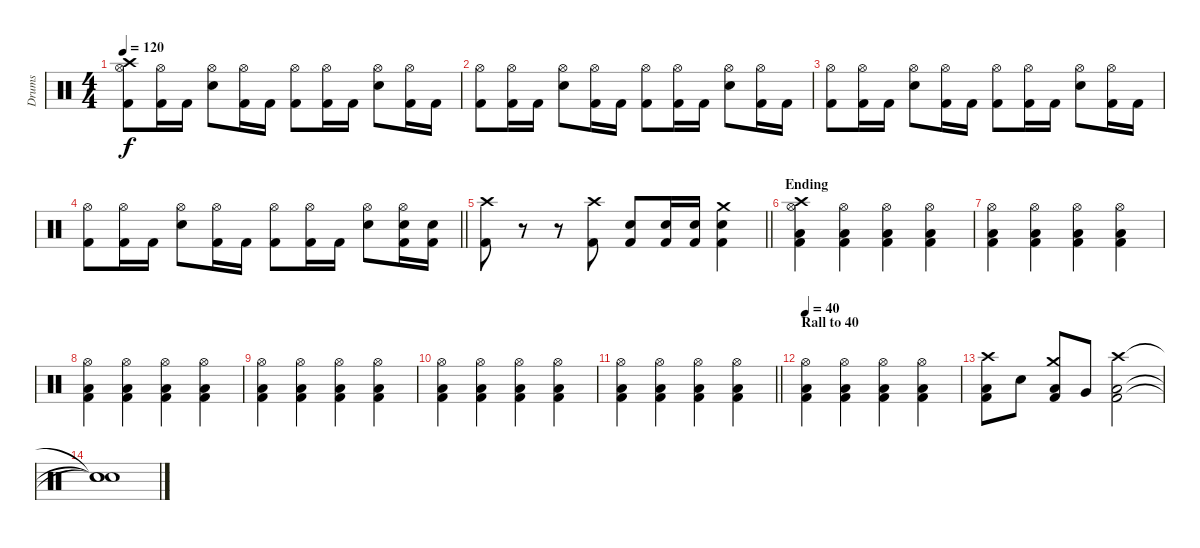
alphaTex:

\track ("Drums" "Drums") {instrument percussion}
\staff {score}
\articulation defaults
\ts (4 4)
\tempo 120
\clef neutral
\ks c
("Crash high (hit)" "Hi-Hat (open)" "Kick (hit) 2").8{dy f} ("Hi-Hat (open)" "Kick (hit) 2").16 "Kick (hit) 2".16 ("Hi-Hat (open)" "Snare (hit) 2").8 ("Hi-Hat (open)" "Kick (hit) 2").16 "Kick (hit) 2".16 ("Hi-Hat (open)" "Kick (hit) 2").8 ("Hi-Hat (open)" "Kick (hit) 2").16 "Kick (hit) 2".16 ("Hi-Hat (open)" "Snare (hit) 2").8 ("Hi-Hat (open)" "Kick (hit) 2").16 "Kick (hit) 2".16 |
("Hi-Hat (open)" "Kick (hit) 2").8 ("Hi-Hat (open)" "Kick (hit) 2").16 "Kick (hit) 2".16 ("Hi-Hat (open)" "Snare (hit) 2").8 ("Hi-Hat (open)" "Kick (hit) 2").16 "Kick (hit) 2".16 ("Hi-Hat (open)" "Kick (hit) 2").8 ("Hi-Hat (open)" "Kick (hit) 2").16 "Kick (hit) 2".16 ("Hi-Hat (open)" "Snare (hit) 2").8 ("Hi-Hat (open)" "Kick (hit) 2").16 "Kick (hit) 2".16 |
("Hi-Hat (open)" "Kick (hit) 2").8 ("Hi-Hat (open)" "Kick (hit) 2").16 "Kick (hit) 2".16 ("Hi-Hat (open)" "Snare (hit) 2").8 ("Hi-Hat (open)" "Kick (hit) 2").16 "Kick (hit) 2".16 ("Hi-Hat (open)" "Kick (hit) 2").8 ("Hi-Hat (open)" "Kick (hit) 2").16 "Kick (hit) 2".16 ("Hi-Hat (open)" "Snare (hit) 2").8 ("Hi-Hat (open)" "Kick (hit) 2").16 "Kick (hit) 2".16 |
\barLineRight lightlight
("Hi-Hat (open)" "Kick (hit) 2").8 ("Hi-Hat (open)" "Kick (hit) 2").16 "Kick (hit) 2".16 ("Hi-Hat (open)" "Snare (hit) 2").8 ("Hi-Hat (open)" "Kick (hit) 2").16 "Kick (hit) 2".16 ("Hi-Hat (open)" "Kick (hit) 2").8 ("Hi-Hat (open)" "Kick (hit) 2").16 "Kick (hit) 2".16 ("Hi-Hat (open)" "Snare (hit) 2").8 ("Hi-Hat (open)" "Snare (hit) 2" "Kick (hit) 2").16 ("Snare (hit) 2" "Kick (hit) 2").16 |
\barLineRight lightlight
("Crash high (hit)" "Kick (hit) 2").8 r.8 r.8 ("Crash high (hit)" "Kick (hit) 2").8 ("Snare (hit) 2" "Kick (hit) 2").8 ("Snare (hit) 2" "Kick (hit) 2").16 ("Snare (hit) 2" "Kick (hit) 2").16 ("Crash medium (hit)" "Snare (hit) 2" "Kick (hit) 2").4 |
\section ("" "Ending")
("Crash high (hit)" "Hi-Hat (open)" "Low Floor Tom (hit)" "Kick (hit) 2").4 ("Hi-Hat (open)" "Low Floor Tom (hit)" "Kick (hit) 2").4 ("Hi-Hat (open)" "Low Floor Tom (hit)" "Kick (hit) 2").4 ("Hi-Hat (open)" "Low Floor Tom (hit)" "Kick (hit) 2").4 |
("Hi-Hat (open)" "Low Floor Tom (hit)" "Kick (hit) 2").4 ("Hi-Hat (open)" "Low Floor Tom (hit)" "Kick (hit) 2").4 ("Hi-Hat (open)" "Low Floor Tom (hit)" "Kick (hit) 2").4 ("Hi-Hat (open)" "Low Floor Tom (hit)" "Kick (hit) 2").4 |
("Hi-Hat (open)" "Low Floor Tom (hit)" "Kick (hit) 2").4 ("Hi-Hat (open)" "Low Floor Tom (hit)" "Kick (hit) 2").4 ("Hi-Hat (open)" "Low Floor Tom (hit)" "Kick (hit) 2").4 ("Hi-Hat (open)" "Low Floor Tom (hit)" "Kick (hit) 2").4 |
("Hi-Hat (open)" "Low Floor Tom (hit)" "Kick (hit) 2").4 ("Hi-Hat (open)" "Low Floor Tom (hit)" "Kick (hit) 2").4 ("Hi-Hat (open)" "Low Floor Tom (hit)" "Kick (hit) 2").4 ("Hi-Hat (open)" "Low Floor Tom (hit)" "Kick (hit) 2").4 |
("Hi-Hat (open)" "Low Floor Tom (hit)" "Kick (hit) 2").4 ("Hi-Hat (open)" "Low Floor Tom (hit)" "Kick (hit) 2").4 ("Hi-Hat (open)" "Low Floor Tom (hit)" "Kick (hit) 2").4 ("Hi-Hat (open)" "Low Floor Tom (hit)" "Kick (hit) 2").4 |
\barLineRight lightlight
("Hi-Hat (open)" "Low Floor Tom (hit)" "Kick (hit) 2").4 ("Hi-Hat (open)" "Low Floor Tom (hit)" "Kick (hit) 2").4 ("Hi-Hat (open)" "Low Floor Tom (hit)" "Kick (hit) 2").4 ("Hi-Hat (open)" "Low Floor Tom (hit)" "Kick (hit) 2").4 |
\section ("" "Rall to 40")
\tempo 40
("Hi-Hat (open)" "Low Floor Tom (hit)" "Kick (hit) 2").4 ("Hi-Hat (open)" "Low Floor Tom (hit)" "Kick (hit) 2").4 ("Hi-Hat (open)" "Low Floor Tom (hit)" "Kick (hit) 2").4 ("Hi-Hat (open)" "Low Floor Tom (hit)" "Kick (hit) 2").4 |
("Crash high (hit)" "Low Floor Tom (hit)" "Kick (hit) 2").8 "Snare (hit) 2".8 ("Crash medium (hit)" "Low Tom (hit)" "Kick (hit) 2").8 "Very Low Tom (hit)".8 ("Crash high (hit)" "Low Floor Tom (hit)" "Kick (hit) 2").2 |
("Snare (hit)"{t} "Snare (hit)"{t} "Snare (hit)"{t}).1
